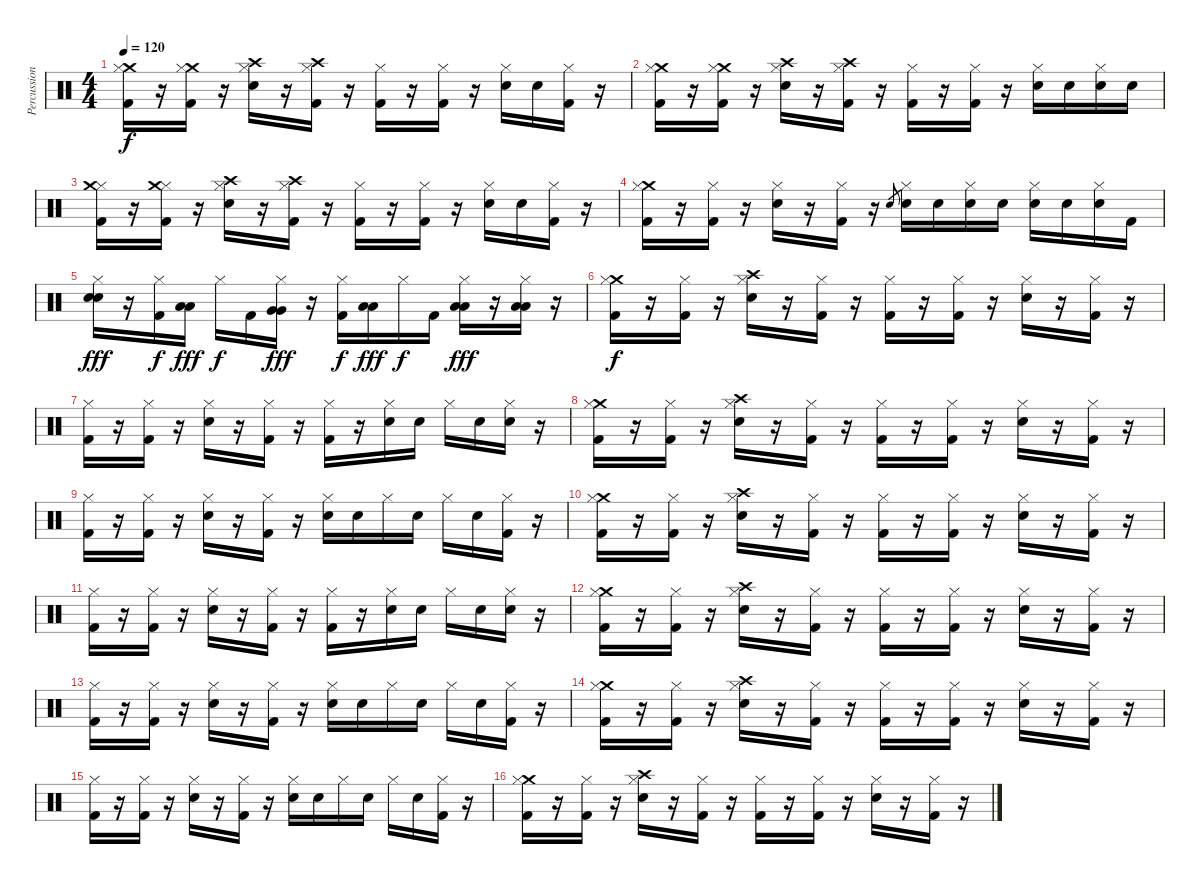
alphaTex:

\track ("Percussion" "Percussion") {instrument percussion}
\staff {score}
\articulation defaults
\ts (4 4)
\tempo 120
\clef neutral
\ks c
("Crash medium (hit)" "Hi-Hat (closed)" "Kick (hit) 2").16{dy f} r.16 ("Crash medium (hit)" "Hi-Hat (closed)" "Kick (hit) 2").16 r.16 ("Crash high (hit)" "Hi-Hat (closed)" "Snare (hit) 2").16 r.16 ("Crash high (hit)" "Hi-Hat (closed)" "Kick (hit) 2").16 r.16 ("Hi-Hat (closed)" "Kick (hit) 2").16 r.16 ("Hi-Hat (closed)" "Kick (hit) 2").16 r.16 ("Hi-Hat (closed)" "Snare (hit) 2").16 "Snare (hit) 2".16 ("Hi-Hat (closed)" "Kick (hit) 2").16 r.16 |
("Crash medium (hit)" "Hi-Hat (closed)" "Kick (hit) 2").16 r.16 ("Crash medium (hit)" "Hi-Hat (closed)" "Kick (hit) 2").16 r.16 ("Crash high (hit)" "Hi-Hat (closed)" "Snare (hit) 2").16 r.16 ("Crash high (hit)" "Hi-Hat (closed)" "Kick (hit) 2").16 r.16 ("Hi-Hat (closed)" "Kick (hit) 2").16 r.16 ("Hi-Hat (closed)" "Kick (hit) 2").16 r.16 ("Hi-Hat (closed)" "Snare (hit) 2").16 "Snare (hit) 2".16 ("Hi-Hat (closed)" "Snare (hit) 2").16 "Snare (hit) 2".16 |
("Hi-Hat (closed)" "Crash medium (hit)" "Kick (hit) 2").16 r.16 ("Hi-Hat (closed)" "Crash medium (hit)" "Kick (hit) 2").16 r.16 ("Hi-Hat (closed)" "Crash high (hit)" "Snare (hit) 2").16 r.16 ("Hi-Hat (closed)" "Crash high (hit)" "Kick (hit) 2").16 r.16 ("Hi-Hat (closed)" "Kick (hit) 2").16 r.16 ("Hi-Hat (closed)" "Kick (hit) 2").16 r.16 ("Hi-Hat (closed)" "Snare (hit) 2").16 "Snare (hit) 2".16 ("Hi-Hat (closed)" "Kick (hit) 2").16 r.16 |
("Crash medium (hit)" "Hi-Hat (closed)" "Kick (hit) 2").16 r.16 ("Hi-Hat (closed)" "Kick (hit) 2").16 r.16 ("Hi-Hat (closed)" "Snare (hit) 2").16 r.16 ("Hi-Hat (closed)" "Kick (hit) 2").16 r.16 "Snare (hit) 2".8{gr} ("Hi-Hat (closed)" "Snare (hit) 2").16 "Snare (hit) 2".16 ("Hi-Hat (closed)" "Snare (hit) 2").16 "Snare (hit) 2".16 ("Hi-Hat (closed)" "Snare (hit) 2").16 "Snare (hit) 2".16 ("Hi-Hat (closed)" "Snare (hit) 2").16 "Kick (hit) 2".16 |
("Hi-Hat (closed)" "Snare (hit) 2" "Snare (hit) 2").16{dy fff} r.16 ("Hi-Hat (closed)" "Kick (hit) 2").16{dy f} ("Low Tom (hit)" "Low Tom (hit)").16{dy fff} "Hi-Hat (closed)".16{dy f} "Kick (hit) 2".16 ("Hi-Hat (closed)" "Very Low Tom (hit)" "Very Low Tom (hit)").16{dy fff} r.16 ("Hi-Hat (closed)" "Kick (hit) 2").16{dy f} ("Low Floor Tom (hit)" "Low Floor Tom (hit)").16{dy fff} "Hi-Hat (closed)".16{dy f} "Kick (hit) 2".16 ("Hi-Hat (closed)" "Low Floor Tom (hit)" "Low Floor Tom (hit)").16{dy fff} r.16 ("Hi-Hat (closed)" "Low Floor Tom (hit)" "Low Floor Tom (hit)").16 r.16 |
("Crash medium (hit)" "Hi-Hat (closed)" "Kick (hit) 2").16{dy f} r.16 ("Hi-Hat (closed)" "Kick (hit) 2").16 r.16 ("Crash high (hit)" "Hi-Hat (closed)" "Snare (hit) 2").16 r.16 ("Hi-Hat (closed)" "Kick (hit) 2").16 r.16 ("Hi-Hat (closed)" "Kick (hit) 2").16 r.16 ("Hi-Hat (closed)" "Kick (hit) 2").16 r.16 ("Hi-Hat (closed)" "Snare (hit) 2").16 r.16 ("Hi-Hat (closed)" "Kick (hit) 2").16 r.16 |
("Hi-Hat (closed)" "Kick (hit) 2").16 r.16 ("Hi-Hat (closed)" "Kick (hit) 2").16 r.16 ("Hi-Hat (closed)" "Snare (hit) 2").16 r.16 ("Hi-Hat (closed)" "Kick (hit) 2").16 r.16 ("Hi-Hat (closed)" "Kick (hit) 2").16 r.16 ("Hi-Hat (closed)" "Snare (hit) 2").16 "Snare (hit) 2".16 "Hi-Hat (closed)".16 "Snare (hit) 2".16 ("Hi-Hat (closed)" "Snare (hit) 2").16 r.16 |
("Crash medium (hit)" "Hi-Hat (closed)" "Kick (hit) 2").16 r.16 ("Hi-Hat (closed)" "Kick (hit) 2").16 r.16 ("Crash high (hit)" "Hi-Hat (closed)" "Snare (hit) 2").16 r.16 ("Hi-Hat (closed)" "Kick (hit) 2").16 r.16 ("Hi-Hat (closed)" "Kick (hit) 2").16 r.16 ("Hi-Hat (closed)" "Kick (hit) 2").16 r.16 ("Hi-Hat (closed)" "Snare (hit) 2").16 r.16 ("Hi-Hat (closed)" "Kick (hit) 2").16 r.16 |
("Hi-Hat (closed)" "Kick (hit) 2").16 r.16 ("Hi-Hat (closed)" "Kick (hit) 2").16 r.16 ("Hi-Hat (closed)" "Snare (hit) 2").16 r.16 ("Hi-Hat (closed)" "Kick (hit) 2").16 r.16 ("Hi-Hat (closed)" "Snare (hit) 2").16 "Snare (hit) 2".16 "Hi-Hat (closed)".16 "Snare (hit) 2".16 "Hi-Hat (closed)".16 "Snare (hit) 2".16 ("Hi-Hat (closed)" "Kick (hit) 2").16 r.16 |
("Crash medium (hit)" "Hi-Hat (closed)" "Kick (hit) 2").16 r.16 ("Hi-Hat (closed)" "Kick (hit) 2").16 r.16 ("Crash high (hit)" "Hi-Hat (closed)" "Snare (hit) 2").16 r.16 ("Hi-Hat (closed)" "Kick (hit) 2").16 r.16 ("Hi-Hat (closed)" "Kick (hit) 2").16 r.16 ("Hi-Hat (closed)" "Kick (hit) 2").16 r.16 ("Hi-Hat (closed)" "Snare (hit) 2").16 r.16 ("Hi-Hat (closed)" "Kick (hit) 2").16 r.16 |
("Hi-Hat (closed)" "Kick (hit) 2").16 r.16 ("Hi-Hat (closed)" "Kick (hit) 2").16 r.16 ("Hi-Hat (closed)" "Snare (hit) 2").16 r.16 ("Hi-Hat (closed)" "Kick (hit) 2").16 r.16 ("Hi-Hat (closed)" "Kick (hit) 2").16 r.16 ("Hi-Hat (closed)" "Snare (hit) 2").16 "Snare (hit) 2".16 "Hi-Hat (closed)".16 "Snare (hit) 2".16 ("Hi-Hat (closed)" "Snare (hit) 2").16 r.16 |
("Crash medium (hit)" "Hi-Hat (closed)" "Kick (hit) 2").16 r.16 ("Hi-Hat (closed)" "Kick (hit) 2").16 r.16 ("Crash high (hit)" "Hi-Hat (closed)" "Snare (hit) 2").16 r.16 ("Hi-Hat (closed)" "Kick (hit) 2").16 r.16 ("Hi-Hat (closed)" "Kick (hit) 2").16 r.16 ("Hi-Hat (closed)" "Kick (hit) 2").16 r.16 ("Hi-Hat (closed)" "Snare (hit) 2").16 r.16 ("Hi-Hat (closed)" "Kick (hit) 2").16 r.16 |
("Hi-Hat (closed)" "Kick (hit) 2").16 r.16 ("Hi-Hat (closed)" "Kick (hit) 2").16 r.16 ("Hi-Hat (closed)" "Snare (hit) 2").16 r.16 ("Hi-Hat (closed)" "Kick (hit) 2").16 r.16 ("Hi-Hat (closed)" "Snare (hit) 2").16 "Snare (hit) 2".16 "Hi-Hat (closed)".16 "Snare (hit) 2".16 "Hi-Hat (closed)".16 "Snare (hit) 2".16 ("Hi-Hat (closed)" "Kick (hit) 2").16 r.16 |
("Crash medium (hit)" "Hi-Hat (closed)" "Kick (hit) 2").16 r.16 ("Hi-Hat (closed)" "Kick (hit) 2").16 r.16 ("Crash high (hit)" "Hi-Hat (closed)" "Snare (hit) 2").16 r.16 ("Hi-Hat (closed)" "Kick (hit) 2").16 r.16 ("Hi-Hat (closed)" "Kick (hit) 2").16 r.16 ("Hi-Hat (closed)" "Kick (hit) 2").16 r.16 ("Hi-Hat (closed)" "Snare (hit) 2").16 r.16 ("Hi-Hat (closed)" "Kick (hit) 2").16 r.16 |
("Hi-Hat (closed)" "Kick (hit) 2").16 r.16 ("Hi-Hat (closed)" "Kick (hit) 2").16 r.16 ("Hi-Hat (closed)" "Snare (hit) 2").16 r.16 ("Hi-Hat (closed)" "Kick (hit) 2").16 r.16 ("Hi-Hat (closed)" "Snare (hit) 2").16 "Snare (hit) 2".16 "Hi-Hat (closed)".16 "Snare (hit) 2".16 "Hi-Hat (closed)".16 "Snare (hit) 2".16 ("Hi-Hat (closed)" "Kick (hit) 2").16 r.16 |
("Crash medium (hit)" "Hi-Hat (closed)" "Kick (hit) 2").16 r.16 ("Hi-Hat (closed)" "Kick (hit) 2").16 r.16 ("Crash high (hit)" "Hi-Hat (closed)" "Snare (hit) 2").16 r.16 ("Hi-Hat (closed)" "Kick (hit) 2").16 r.16 ("Hi-Hat (closed)" "Kick (hit) 2").16 r.16 ("Hi-Hat (closed)" "Kick (hit) 2").16 r.16 ("Hi-Hat (closed)" "Snare (hit) 2").16 r.16 ("Hi-Hat (closed)" "Kick (hit) 2").16 r.16
